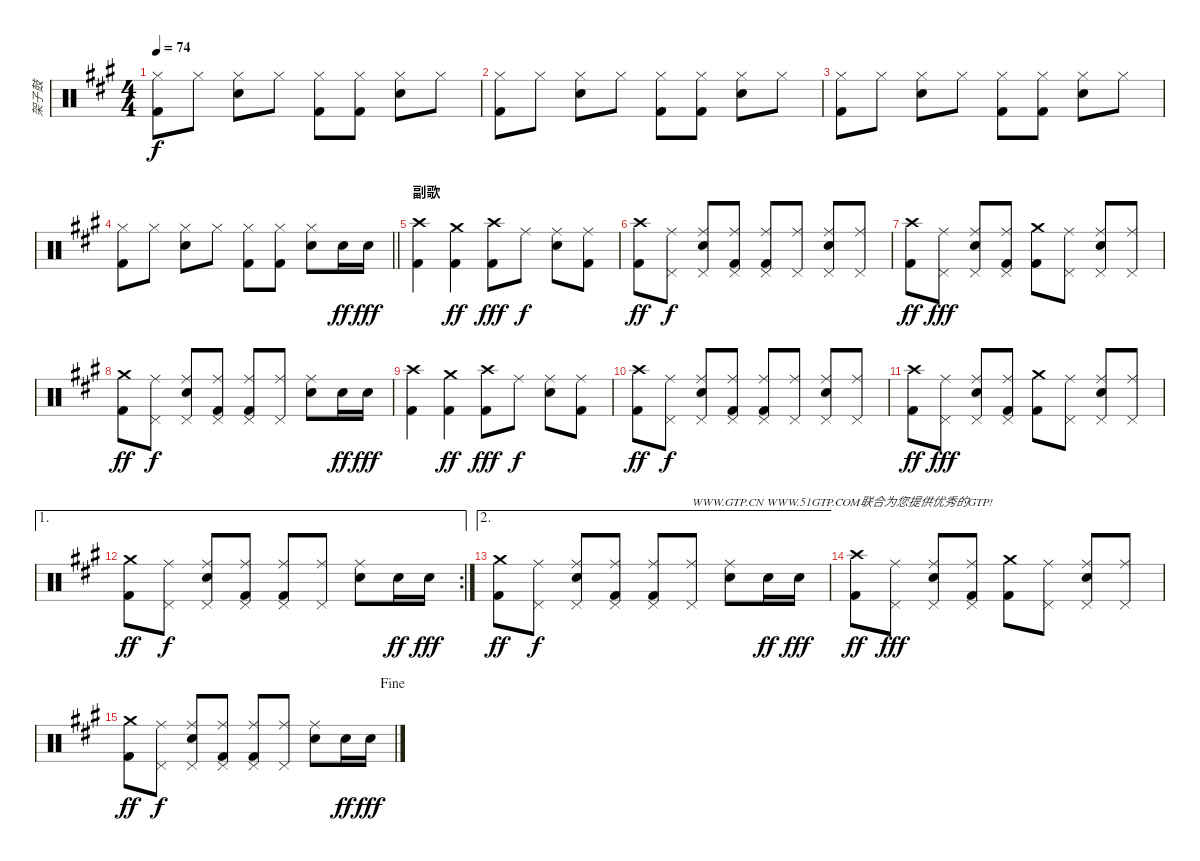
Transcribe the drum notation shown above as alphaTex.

\track ("架子鼓" "架子鼓") {instrument percussion}
\staff {score}
\articulation defaults
\ts (4 4)
\tempo 74
\clef neutral
\ks a
("Hi-Hat (closed)" "Kick (hit) 2").8{dy f} "Hi-Hat (closed)".8 ("Hi-Hat (closed)" "Electric Snare (hit)").8 "Hi-Hat (closed)".8 ("Hi-Hat (closed)" "Kick (hit) 2").8 ("Hi-Hat (closed)" "Kick (hit) 2").8 ("Hi-Hat (closed)" "Electric Snare (hit)").8 "Hi-Hat (closed)".8 |
("Hi-Hat (closed)" "Kick (hit) 2").8 "Hi-Hat (closed)".8 ("Hi-Hat (closed)" "Electric Snare (hit)").8 "Hi-Hat (closed)".8 ("Hi-Hat (closed)" "Kick (hit) 2").8 ("Hi-Hat (closed)" "Kick (hit) 2").8 ("Hi-Hat (closed)" "Electric Snare (hit)").8 "Hi-Hat (closed)".8 |
("Hi-Hat (closed)" "Kick (hit) 2").8 "Hi-Hat (closed)".8 ("Hi-Hat (closed)" "Electric Snare (hit)").8 "Hi-Hat (closed)".8 ("Hi-Hat (closed)" "Kick (hit) 2").8 ("Hi-Hat (closed)" "Kick (hit) 2").8 ("Hi-Hat (closed)" "Electric Snare (hit)").8 "Hi-Hat (closed)".8 |
\barLineRight lightlight
("Hi-Hat (closed)" "Kick (hit) 2").8 "Hi-Hat (closed)".8 ("Hi-Hat (closed)" "Electric Snare (hit)").8 "Hi-Hat (closed)".8 ("Hi-Hat (closed)" "Kick (hit) 2").8 ("Hi-Hat (closed)" "Kick (hit) 2").8 ("Hi-Hat (closed)" "Electric Snare (hit)").8 "Electric Snare (hit)".16{dy ff} "Electric Snare (hit)".16{dy fff} |
\section ("" "副歌")
("Crash high (hit)" "Kick (hit) 2").4 ("Crash medium (hit)" "Kick (hit) 2").4{dy ff} ("Crash high (hit)" "Kick (hit) 2").8{dy fff} "Ride (middle)".8{dy f} ("Ride (middle)" "Electric Snare (hit)").8 ("Ride (middle)" "Kick (hit) 2").8 |
("Crash high (hit)" "Kick (hit) 2").8{dy ff} ("Ride (middle)" "Pedal Hi-Hat (hit)").8{dy f} ("Ride (middle)" "Electric Snare (hit)" "Pedal Hi-Hat (hit)").8 ("Ride (middle)" "Pedal Hi-Hat (hit)" "Kick (hit) 2").8 ("Ride (middle)" "Pedal Hi-Hat (hit)" "Kick (hit) 2").8 ("Ride (middle)" "Pedal Hi-Hat (hit)").8 ("Ride (middle)" "Electric Snare (hit)" "Pedal Hi-Hat (hit)").8 ("Ride (middle)" "Pedal Hi-Hat (hit)").8 |
("Crash high (hit)" "Kick (hit) 2").8{dy ff} ("Ride (middle)" "Pedal Hi-Hat (hit)").8{dy fff} ("Ride (middle)" "Electric Snare (hit)" "Pedal Hi-Hat (hit)").8 ("Ride (middle)" "Pedal Hi-Hat (hit)" "Kick (hit) 2").8 ("Crash medium (hit)" "Kick (hit) 2").8 ("Ride (middle)" "Pedal Hi-Hat (hit)").8 ("Ride (middle)" "Electric Snare (hit)" "Pedal Hi-Hat (hit)").8 ("Ride (middle)" "Pedal Hi-Hat (hit)").8 |
("Crash medium (hit)" "Kick (hit) 2").8{dy ff} ("Ride (middle)" "Pedal Hi-Hat (hit)").8{dy f} ("Ride (middle)" "Electric Snare (hit)" "Pedal Hi-Hat (hit)").8 ("Ride (middle)" "Pedal Hi-Hat (hit)" "Kick (hit) 2").8 ("Ride (middle)" "Pedal Hi-Hat (hit)" "Kick (hit) 2").8 ("Ride (middle)" "Pedal Hi-Hat (hit)").8 ("Ride (middle)" "Electric Snare (hit)").8 "Electric Snare (hit)".16{dy ff} "Electric Snare (hit)".16{dy fff} |
("Crash high (hit)" "Kick (hit) 2").4 ("Crash medium (hit)" "Kick (hit) 2").4{dy ff} ("Crash high (hit)" "Kick (hit) 2").8{dy fff} "Ride (middle)".8{dy f} ("Ride (middle)" "Electric Snare (hit)").8 ("Ride (middle)" "Kick (hit) 2").8 |
("Crash high (hit)" "Kick (hit) 2").8{dy ff} ("Ride (middle)" "Pedal Hi-Hat (hit)").8{dy f} ("Ride (middle)" "Electric Snare (hit)" "Pedal Hi-Hat (hit)").8 ("Ride (middle)" "Pedal Hi-Hat (hit)" "Kick (hit) 2").8 ("Ride (middle)" "Pedal Hi-Hat (hit)" "Kick (hit) 2").8 ("Ride (middle)" "Pedal Hi-Hat (hit)").8 ("Ride (middle)" "Electric Snare (hit)" "Pedal Hi-Hat (hit)").8 ("Ride (middle)" "Pedal Hi-Hat (hit)").8 |
("Crash high (hit)" "Kick (hit) 2").8{dy ff} ("Ride (middle)" "Pedal Hi-Hat (hit)").8{dy fff} ("Ride (middle)" "Electric Snare (hit)" "Pedal Hi-Hat (hit)").8 ("Ride (middle)" "Pedal Hi-Hat (hit)" "Kick (hit) 2").8 ("Crash medium (hit)" "Kick (hit) 2").8 ("Ride (middle)" "Pedal Hi-Hat (hit)").8 ("Ride (middle)" "Electric Snare (hit)" "Pedal Hi-Hat (hit)").8 ("Ride (middle)" "Pedal Hi-Hat (hit)").8 |
\ae 1
\rc 2
("Crash medium (hit)" "Kick (hit) 2").8{dy ff} ("Ride (middle)" "Pedal Hi-Hat (hit)").8{dy f} ("Ride (middle)" "Electric Snare (hit)" "Pedal Hi-Hat (hit)").8 ("Ride (middle)" "Pedal Hi-Hat (hit)" "Kick (hit) 2").8 ("Ride (middle)" "Pedal Hi-Hat (hit)" "Kick (hit) 2").8 ("Ride (middle)" "Pedal Hi-Hat (hit)").8 ("Ride (middle)" "Electric Snare (hit)").8 "Electric Snare (hit)".16{dy ff} "Electric Snare (hit)".16{dy fff} |
\ae 2
("Crash medium (hit)" "Kick (hit) 2").8{dy ff} ("Ride (middle)" "Pedal Hi-Hat (hit)").8{dy f} ("Ride (middle)" "Electric Snare (hit)" "Pedal Hi-Hat (hit)").8 ("Ride (middle)" "Pedal Hi-Hat (hit)" "Kick (hit) 2").8 ("Ride (middle)" "Pedal Hi-Hat (hit)" "Kick (hit) 2").8 ("Ride (middle)" "Pedal Hi-Hat (hit)").8{txt "WWW.GTP.CN WWW.51GTP.COM联合为您提供优秀的GTP!"} ("Ride (middle)" "Electric Snare (hit)").8 "Electric Snare (hit)".16{dy ff} "Electric Snare (hit)".16{dy fff} |
("Crash high (hit)" "Kick (hit) 2").8{dy ff} ("Ride (middle)" "Pedal Hi-Hat (hit)").8{dy fff} ("Ride (middle)" "Electric Snare (hit)" "Pedal Hi-Hat (hit)").8 ("Ride (middle)" "Pedal Hi-Hat (hit)" "Kick (hit) 2").8 ("Crash medium (hit)" "Kick (hit) 2").8 ("Ride (middle)" "Pedal Hi-Hat (hit)").8 ("Ride (middle)" "Electric Snare (hit)" "Pedal Hi-Hat (hit)").8 ("Ride (middle)" "Pedal Hi-Hat (hit)").8 |
\jump fine
("Crash medium (hit)" "Kick (hit) 2").8{dy ff} ("Ride (middle)" "Pedal Hi-Hat (hit)").8{dy f} ("Ride (middle)" "Electric Snare (hit)" "Pedal Hi-Hat (hit)").8 ("Ride (middle)" "Pedal Hi-Hat (hit)" "Kick (hit) 2").8 ("Ride (middle)" "Pedal Hi-Hat (hit)" "Kick (hit) 2").8 ("Ride (middle)" "Pedal Hi-Hat (hit)").8 ("Ride (middle)" "Electric Snare (hit)").8 "Electric Snare (hit)".16{dy ff} "Electric Snare (hit)".16{dy fff}
